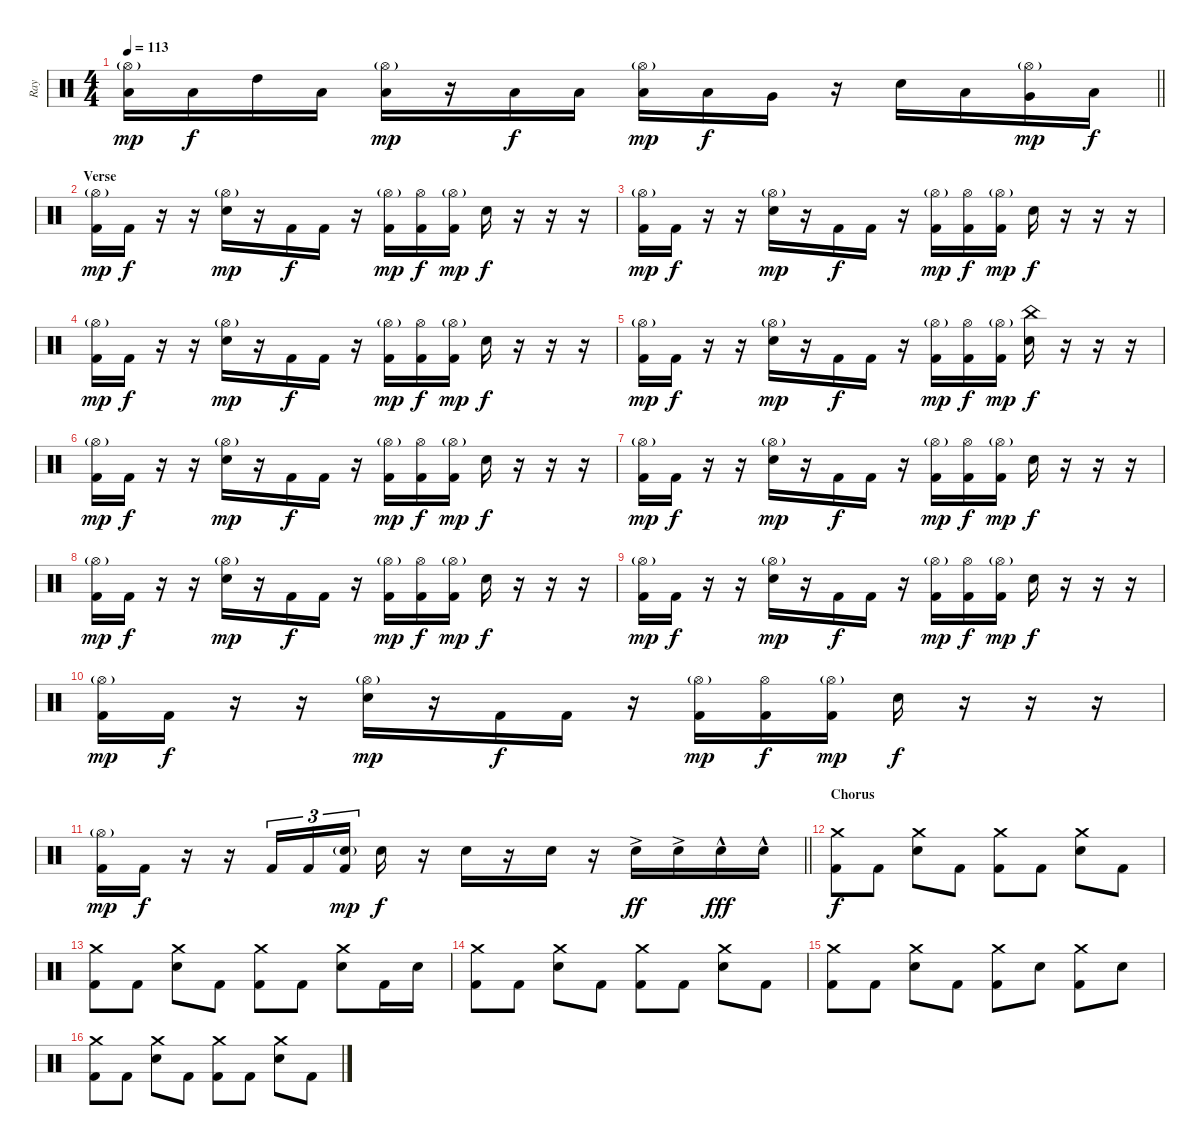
\track ("Ray" "Ray") {instrument percussion}
\staff {score}
\articulation defaults
\ts (4 4)
\tempo 113
\clef neutral
\barLineRight lightlight
\ks c
("Hi-Hat (open)"{g} "Low Floor Tom (hit)").16{dy mp} "Low Floor Tom (hit)".16{dy f} "High Tom (hit)".16 "Low Tom (hit)".16 ("Hi-Hat (open)"{g} "Low Floor Tom (hit)").16{dy mp} r.16 "Low Tom (hit)".16{dy f} "Low Tom (hit)".16 ("Hi-Hat (open)"{g} "Low Floor Tom (hit)").16{dy mp} "Low Floor Tom (hit)".16{dy f} "Very Low Tom (hit)".16 r.16 "Electric Snare (hit)".16 "Low Tom (hit)".16 ("Hi-Hat (open)"{g} "Very Low Tom (hit)").16{dy mp} "Low Floor Tom (hit)".16{dy f} |
\section ("" "Verse")
("Hi-Hat (open)"{g} "Kick (hit) 2").16{dy mp} "Kick (hit) 2".16{dy f} r.16 r.16 ("Hi-Hat (open)"{g} "Electric Snare (hit)").16{dy mp} r.16 "Kick (hit) 2".16{dy f} "Kick (hit) 2".16 r.16 ("Hi-Hat (open)"{g} "Kick (hit) 2").16{dy mp} ("Hi-Hat (open)" "Kick (hit) 2").16{dy f} ("Hi-Hat (open)"{g} "Kick (hit) 2").16{dy mp} "Electric Snare (hit)".16{dy f} r.16 r.16 r.16 |
("Hi-Hat (open)"{g} "Kick (hit) 2").16{dy mp} "Kick (hit) 2".16{dy f} r.16 r.16 ("Hi-Hat (open)"{g} "Electric Snare (hit)").16{dy mp} r.16 "Kick (hit) 2".16{dy f} "Kick (hit) 2".16 r.16 ("Hi-Hat (open)"{g} "Kick (hit) 2").16{dy mp} ("Hi-Hat (open)" "Kick (hit) 2").16{dy f} ("Hi-Hat (open)"{g} "Kick (hit) 2").16{dy mp} "Electric Snare (hit)".16{dy f} r.16 r.16 r.16 |
("Hi-Hat (open)"{g} "Kick (hit) 2").16{dy mp} "Kick (hit) 2".16{dy f} r.16 r.16 ("Hi-Hat (open)"{g} "Electric Snare (hit)").16{dy mp} r.16 "Kick (hit) 2".16{dy f} "Kick (hit) 2".16 r.16 ("Hi-Hat (open)"{g} "Kick (hit) 2").16{dy mp} ("Hi-Hat (open)" "Kick (hit) 2").16{dy f} ("Hi-Hat (open)"{g} "Kick (hit) 2").16{dy mp} "Electric Snare (hit)".16{dy f} r.16 r.16 r.16 |
("Hi-Hat (open)"{g} "Kick (hit) 2").16{dy mp} "Kick (hit) 2".16{dy f} r.16 r.16 ("Hi-Hat (open)"{g} "Electric Snare (hit)").16{dy mp} r.16 "Kick (hit) 2".16{dy f} "Kick (hit) 2".16 r.16 ("Hi-Hat (open)"{g} "Kick (hit) 2").16{dy mp} ("Hi-Hat (open)" "Kick (hit) 2").16{dy f} ("Hi-Hat (open)"{g} "Kick (hit) 2").16{dy mp} ("China (hit)" "Electric Snare (hit)").16{dy f} r.16 r.16 r.16 |
("Hi-Hat (open)"{g} "Kick (hit) 2").16{dy mp} "Kick (hit) 2".16{dy f} r.16 r.16 ("Hi-Hat (open)"{g} "Electric Snare (hit)").16{dy mp} r.16 "Kick (hit) 2".16{dy f} "Kick (hit) 2".16 r.16 ("Hi-Hat (open)"{g} "Kick (hit) 2").16{dy mp} ("Hi-Hat (open)" "Kick (hit) 2").16{dy f} ("Hi-Hat (open)"{g} "Kick (hit) 2").16{dy mp} "Electric Snare (hit)".16{dy f} r.16 r.16 r.16 |
("Hi-Hat (open)"{g} "Kick (hit) 2").16{dy mp} "Kick (hit) 2".16{dy f} r.16 r.16 ("Hi-Hat (open)"{g} "Electric Snare (hit)").16{dy mp} r.16 "Kick (hit) 2".16{dy f} "Kick (hit) 2".16 r.16 ("Hi-Hat (open)"{g} "Kick (hit) 2").16{dy mp} ("Hi-Hat (open)" "Kick (hit) 2").16{dy f} ("Hi-Hat (open)"{g} "Kick (hit) 2").16{dy mp} "Electric Snare (hit)".16{dy f} r.16 r.16 r.16 |
("Hi-Hat (open)"{g} "Kick (hit) 2").16{dy mp} "Kick (hit) 2".16{dy f} r.16 r.16 ("Hi-Hat (open)"{g} "Electric Snare (hit)").16{dy mp} r.16 "Kick (hit) 2".16{dy f} "Kick (hit) 2".16 r.16 ("Hi-Hat (open)"{g} "Kick (hit) 2").16{dy mp} ("Hi-Hat (open)" "Kick (hit) 2").16{dy f} ("Hi-Hat (open)"{g} "Kick (hit) 2").16{dy mp} "Electric Snare (hit)".16{dy f} r.16 r.16 r.16 |
("Hi-Hat (open)"{g} "Kick (hit) 2").16{dy mp} "Kick (hit) 2".16{dy f} r.16 r.16 ("Hi-Hat (open)"{g} "Electric Snare (hit)").16{dy mp} r.16 "Kick (hit) 2".16{dy f} "Kick (hit) 2".16 r.16 ("Hi-Hat (open)"{g} "Kick (hit) 2").16{dy mp} ("Hi-Hat (open)" "Kick (hit) 2").16{dy f} ("Hi-Hat (open)"{g} "Kick (hit) 2").16{dy mp} "Electric Snare (hit)".16{dy f} r.16 r.16 r.16 |
("Hi-Hat (open)"{g} "Kick (hit) 2").16{dy mp} "Kick (hit) 2".16{dy f} r.16 r.16 ("Hi-Hat (open)"{g} "Electric Snare (hit)").16{dy mp} r.16 "Kick (hit) 2".16{dy f} "Kick (hit) 2".16 r.16 ("Hi-Hat (open)"{g} "Kick (hit) 2").16{dy mp} ("Hi-Hat (open)" "Kick (hit) 2").16{dy f} ("Hi-Hat (open)"{g} "Kick (hit) 2").16{dy mp} "Electric Snare (hit)".16{dy f} r.16 r.16 r.16 |
\barLineRight lightlight
("Hi-Hat (open)"{g} "Kick (hit) 2").16{dy mp} "Kick (hit) 2".16{dy f} r.16 r.16 "Kick (hit) 2".16{tu (3 2)} "Kick (hit) 2".16{tu (3 2)} ("Electric Snare (hit)"{g} "Kick (hit) 2").16{tu (3 2) dy mp beam splitsecondary} "Electric Snare (hit)".16{dy f} r.16 "Electric Snare (hit)".16 r.16 "Electric Snare (hit)".16 r.16 "Electric Snare (hit)"{ac}.16{dy ff} "Electric Snare (hit)"{ac}.16 "Electric Snare (hit)"{hac}.16{dy fff} "Electric Snare (hit)"{hac}.16 |
\section ("" "Chorus")
("Crash medium (hit)" "Kick (hit) 2").8{dy f} "Kick (hit) 2".8 ("Crash medium (hit)" "Electric Snare (hit)").8 "Kick (hit) 2".8 ("Crash medium (hit)" "Kick (hit) 2").8 "Kick (hit) 2".8 ("Crash medium (hit)" "Electric Snare (hit)").8 "Kick (hit) 2".8 |
("Crash medium (hit)" "Kick (hit) 2").8 "Kick (hit) 2".8 ("Crash medium (hit)" "Electric Snare (hit)").8 "Kick (hit) 2".8 ("Crash medium (hit)" "Kick (hit) 2").8 "Kick (hit) 2".8 ("Crash medium (hit)" "Electric Snare (hit)").8 "Kick (hit) 2".16 "Electric Snare (hit)".16 |
("Crash medium (hit)" "Kick (hit) 2").8 "Kick (hit) 2".8 ("Crash medium (hit)" "Electric Snare (hit)").8 "Kick (hit) 2".8 ("Crash medium (hit)" "Kick (hit) 2").8 "Kick (hit) 2".8 ("Crash medium (hit)" "Electric Snare (hit)").8 "Kick (hit) 2".8 |
("Crash medium (hit)" "Kick (hit) 2").8 "Kick (hit) 2".8 ("Crash medium (hit)" "Electric Snare (hit)").8 "Kick (hit) 2".8 ("Crash medium (hit)" "Kick (hit) 2").8 "Electric Snare (hit)".8 ("Crash medium (hit)" "Kick (hit) 2").8 "Electric Snare (hit)".8 |
("Crash medium (hit)" "Kick (hit) 2").8 "Kick (hit) 2".8 ("Crash medium (hit)" "Electric Snare (hit)").8 "Kick (hit) 2".8 ("Crash medium (hit)" "Kick (hit) 2").8 "Kick (hit) 2".8 ("Crash medium (hit)" "Electric Snare (hit)").8 "Kick (hit) 2".8
